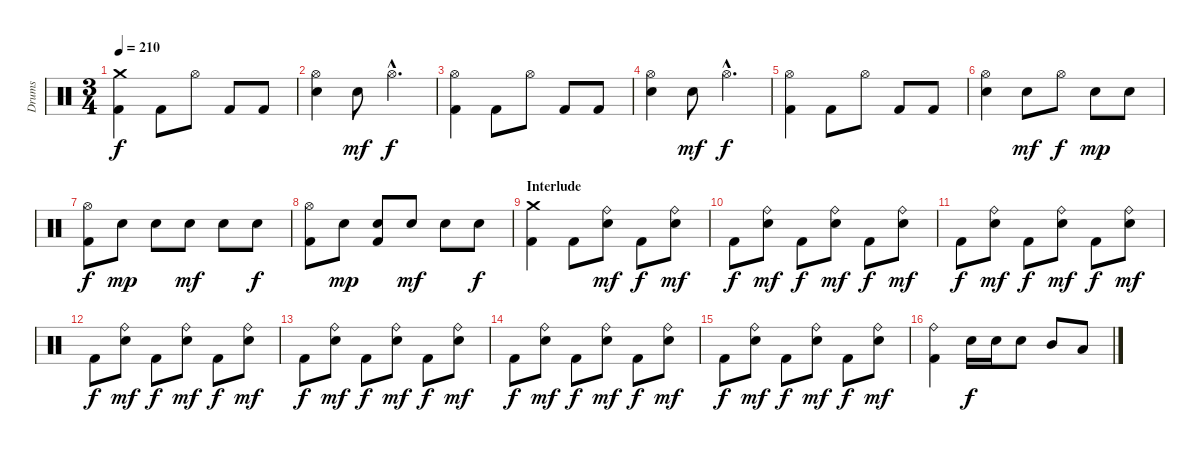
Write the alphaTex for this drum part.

\track ("Drums" "Drums") {instrument percussion}
\staff {score}
\articulation defaults
\ts (3 4)
\tempo 210
\clef neutral
\ks c
("Crash medium (hit)" "Kick (hit) 2").4{dy f} "Kick (hit) 2".8 "Hi-Hat (open)".8 "Kick (hit) 2".8 "Kick (hit) 2".8 |
("Hi-Hat (open)" "Electric Snare (hit)").4 "Electric Snare (hit)".8{dy mf} "Hi-Hat (open)"{hac}.4{d dy f} |
("Hi-Hat (open)" "Kick (hit) 2").4 "Kick (hit) 2".8 "Hi-Hat (open)".8 "Kick (hit) 2".8 "Kick (hit) 2".8 |
("Hi-Hat (open)" "Electric Snare (hit)").4 "Electric Snare (hit)".8{dy mf} "Hi-Hat (open)"{hac}.4{d dy f} |
("Hi-Hat (open)" "Kick (hit) 2").4 "Kick (hit) 2".8 "Hi-Hat (open)".8 "Kick (hit) 2".8 "Kick (hit) 2".8 |
("Hi-Hat (open)" "Electric Snare (hit)").4 "Electric Snare (hit)".8{dy mf} "Hi-Hat (open)".8{dy f} "Electric Snare (hit)".8{dy mp} "Electric Snare (hit)".8 |
("Hi-Hat (open)" "Kick (hit) 2").8{dy f} "Electric Snare (hit)".8{dy mp} "Electric Snare (hit)".8 "Electric Snare (hit)".8{dy mf} "Electric Snare (hit)".8 "Electric Snare (hit)".8{dy f} |
("Hi-Hat (open)" "Kick (hit) 2").8 "Electric Snare (hit)".8{dy mp} ("Electric Snare (hit)" "Kick (hit) 2").8 "Electric Snare (hit)".8{dy mf} "Electric Snare (hit)".8 "Electric Snare (hit)".8{dy f} |
\section ("" "Interlude")
("Crash medium (hit)" "Kick (hit) 2").4{volume 15} "Kick (hit) 2".8 ("Ride (bell)" "Electric Snare (hit)").8{dy mf} "Kick (hit) 2".8{dy f} ("Ride (bell)" "Electric Snare (hit)").8{dy mf} |
"Kick (hit) 2".8{dy f} ("Ride (bell)" "Electric Snare (hit)").8{dy mf} "Kick (hit) 2".8{dy f} ("Ride (bell)" "Electric Snare (hit)").8{dy mf} "Kick (hit) 2".8{dy f} ("Ride (bell)" "Electric Snare (hit)").8{dy mf} |
"Kick (hit) 2".8{dy f} ("Ride (bell)" "Electric Snare (hit)").8{dy mf} "Kick (hit) 2".8{dy f} ("Ride (bell)" "Electric Snare (hit)").8{dy mf} "Kick (hit) 2".8{dy f} ("Ride (bell)" "Electric Snare (hit)").8{dy mf} |
"Kick (hit) 2".8{dy f} ("Ride (bell)" "Electric Snare (hit)").8{dy mf} "Kick (hit) 2".8{dy f} ("Ride (bell)" "Electric Snare (hit)").8{dy mf} "Kick (hit) 2".8{dy f} ("Ride (bell)" "Electric Snare (hit)").8{dy mf} |
"Kick (hit) 2".8{dy f} ("Ride (bell)" "Electric Snare (hit)").8{dy mf} "Kick (hit) 2".8{dy f} ("Ride (bell)" "Electric Snare (hit)").8{dy mf} "Kick (hit) 2".8{dy f} ("Ride (bell)" "Electric Snare (hit)").8{dy mf} |
"Kick (hit) 2".8{dy f} ("Ride (bell)" "Electric Snare (hit)").8{dy mf} "Kick (hit) 2".8{dy f} ("Ride (bell)" "Electric Snare (hit)").8{dy mf} "Kick (hit) 2".8{dy f} ("Ride (bell)" "Electric Snare (hit)").8{dy mf} |
"Kick (hit) 2".8{dy f} ("Ride (bell)" "Electric Snare (hit)").8{dy mf} "Kick (hit) 2".8{dy f} ("Ride (bell)" "Electric Snare (hit)").8{dy mf} "Kick (hit) 2".8{dy f} ("Ride (bell)" "Electric Snare (hit)").8{dy mf} |
("Ride (bell)" "Kick (hit) 2").4 "Electric Snare (hit)".16{dy f} "Electric Snare (hit)".16 "Electric Snare (hit)".8 "Mid Tom (hit)".8 "Low Tom (hit)".8
